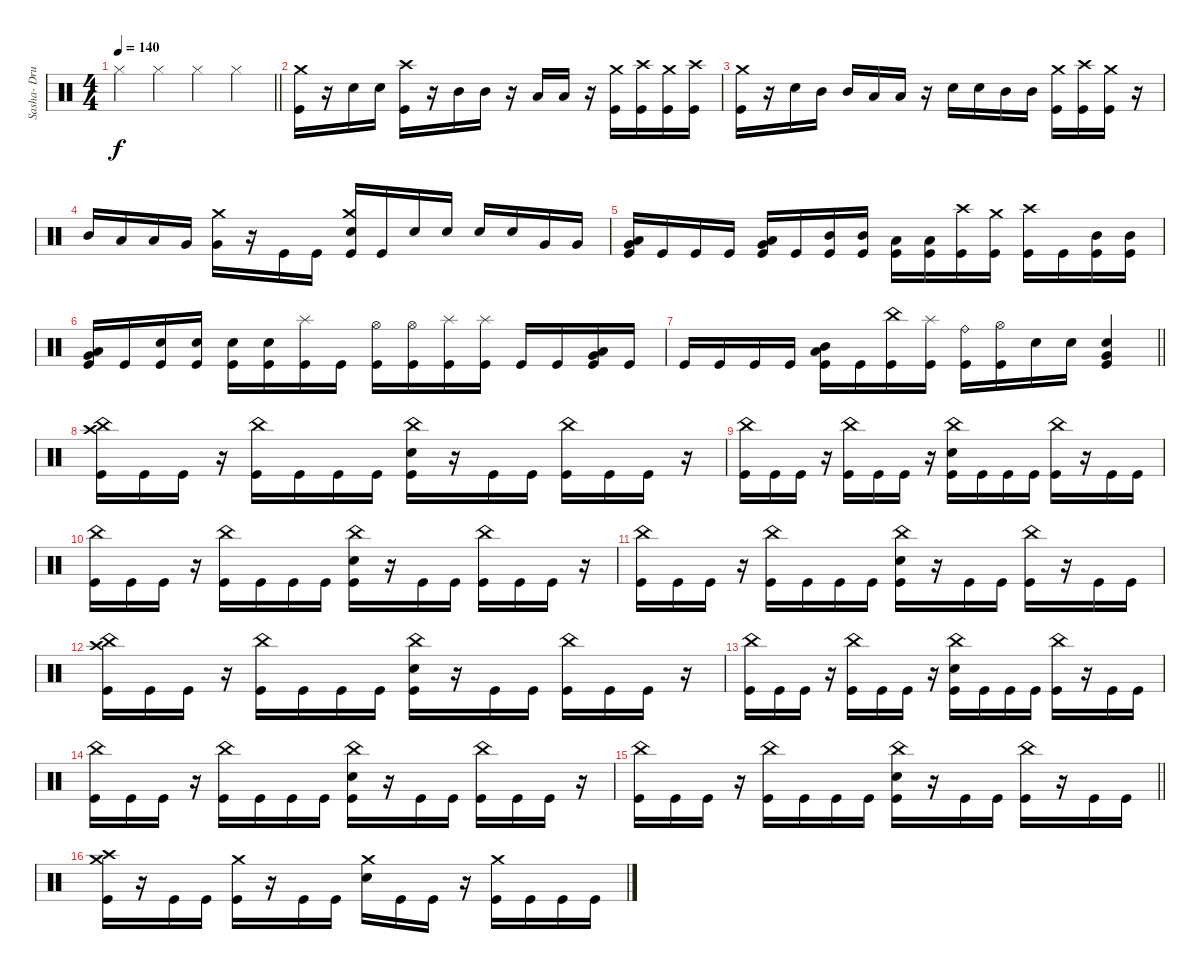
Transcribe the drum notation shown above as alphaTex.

\track ("Sasha- Drums" "Sasha- Dru") {instrument percussion}
\staff {score}
\articulation defaults
\ts (4 4)
\tempo 140
\clef neutral
\barLineRight lightlight
\ks c "Hi-Hat (closed)".4{dy f} "Hi-Hat (closed)".4 "Hi-Hat (closed)".4 "Hi-Hat (closed)".4
|
\section ("" "")
("Kick (hit)" "Crash medium (hit)").16 r.16 "Snare (hit) 2".16 "Snare (hit) 2".16 ("Kick (hit)" "Crash high (hit)").16 r.16 "Mid Tom (hit)".16 "Mid Tom (hit)".16 r.16 "Low Tom (hit)".16 "Low Tom (hit)".16 r.16 ("Crash medium (hit)" "Kick (hit)").16 ("Kick (hit)" "Crash high (hit)").16 ("Kick (hit)" "Crash medium (hit)").16 ("Kick (hit)" "Crash high (hit)").16 |
("Crash medium (hit)" "Kick (hit)").16 r.16 "Snare (hit) 2".16 "Mid Tom (hit)".16 "Mid Tom (hit)".16 "Low Tom (hit)".16 "Low Tom (hit)".16 r.16 "Snare (hit) 2".16 "Snare (hit) 2".16 "Mid Tom (hit)".16 "Mid Tom (hit)".16 ("Kick (hit)" "Crash medium (hit)").16 ("Kick (hit)" "Crash high (hit)").16 ("Kick (hit)" "Crash medium (hit)").16 r.16 |
"Mid Tom (hit)".16 "Low Tom (hit)".16 "Low Tom (hit)".16 "Very Low Tom (hit)".16 ("Crash medium (hit)" "Very Low Tom (hit)").16 r.16 "Kick (hit)".16 "Kick (hit)".16 ("Kick (hit)" "Crash medium (hit)" "Snare (hit) 2").16 "Kick (hit)".16 "Snare (hit) 2".16 "Snare (hit) 2".16 "Snare (hit) 2".16 "Snare (hit) 2".16 "Very Low Tom (hit)".16 "Very Low Tom (hit)".16 |
("Kick (hit)" "Very Low Tom (hit)" "Low Tom (hit)").16 "Kick (hit)".16 "Kick (hit)".16 "Kick (hit)".16 ("Kick (hit)" "Very Low Tom (hit)" "Low Tom (hit)").16 "Kick (hit)".16 ("Kick (hit)" "Mid Tom (hit)").16 ("Kick (hit)" "Mid Tom (hit)").16 ("Kick (hit)" "Low Tom (hit)").16 ("Kick (hit)" "Low Tom (hit)").16 ("Kick (hit)" "Crash high (hit)").16 ("Kick (hit)" "Crash medium (hit)").16 ("Kick (hit)" "Crash high (hit)").16 "Kick (hit)".16 ("Kick (hit)" "Mid Tom (hit)").16 ("Kick (hit)" "Mid Tom (hit)").16 |
("Kick (hit)" "Very Low Tom (hit)" "Low Tom (hit)").16 "Kick (hit)".16 ("Kick (hit)" "Snare (hit) 2").16 ("Kick (hit)" "Snare (hit) 2").16 ("Kick (hit)" "Snare (hit) 2").16 ("Kick (hit)" "Snare (hit) 2").16 ("Kick (hit)" "Splash (hit)").16 "Kick (hit)".16 ("Kick (hit)" "Hi-Hat (open)").16 ("Kick (hit)" "Hi-Hat (open)").16 ("Kick (hit)" "Splash (hit)").16 ("Kick (hit)" "Splash (hit)").16 "Kick (hit)".16 "Kick (hit)".16 ("Low Tom (hit)" "Kick (hit)" "Very Low Tom (hit)").16 "Kick (hit)".16 |
\barLineRight lightlight "Kick (hit)".16 "Kick (hit)".16 "Kick (hit)".16 "Kick (hit)".16
("Kick (hit)" "Low Tom (hit)" "Mid Tom (hit)").16 "Kick (hit)".16 ("Kick (hit)" "China (hit)").16 ("Kick (hit)" "Splash (hit)").16 ("Kick (hit)" "Ride (bell)").16 ("Kick (hit)" "Hi-Hat (open)").16 "Snare (hit) 2".16 "Snare (hit) 2".16 ("Kick (hit)" "Very Low Tom (hit)" "Snare (hit) 2").4 |
\section ("" "")
("Kick (hit)" "Crash high (hit)" "China (hit)").16 "Kick (hit)".16 "Kick (hit)".16 r.16 ("Kick (hit)" "China (hit)").16 "Kick (hit)".16 "Kick (hit)".16 "Kick (hit)".16 ("Kick (hit)" "China (hit)" "Snare (hit) 2").16 r.16 "Kick (hit)".16 "Kick (hit)".16 ("Kick (hit)" "China (hit)").16 "Kick (hit)".16 "Kick (hit)".16 r.16 |
("Kick (hit)" "China (hit)").16 "Kick (hit)".16 "Kick (hit)".16 r.16 ("Kick (hit)" "China (hit)").16 "Kick (hit)".16 "Kick (hit)".16 r.16 ("Kick (hit)" "China (hit)" "Snare (hit) 2").16 "Kick (hit)".16 "Kick (hit)".16 "Kick (hit)".16 ("Kick (hit)" "China (hit)").16 r.16 "Kick (hit)".16 "Kick (hit)".16 |
("Kick (hit)" "China (hit)").16 "Kick (hit)".16 "Kick (hit)".16 r.16 ("Kick (hit)" "China (hit)").16 "Kick (hit)".16 "Kick (hit)".16 "Kick (hit)".16 ("Kick (hit)" "China (hit)" "Snare (hit) 2").16 r.16 "Kick (hit)".16 "Kick (hit)".16 ("Kick (hit)" "China (hit)").16 "Kick (hit)".16 "Kick (hit)".16 r.16 |
("Kick (hit)" "China (hit)").16 "Kick (hit)".16 "Kick (hit)".16 r.16 ("Kick (hit)" "China (hit)").16 "Kick (hit)".16 "Kick (hit)".16 "Kick (hit)".16 ("Kick (hit)" "China (hit)" "Snare (hit) 2").16 r.16 "Kick (hit)".16 "Kick (hit)".16 ("Kick (hit)" "China (hit)").16 r.16 "Kick (hit)".16 "Kick (hit)".16 |
("Kick (hit)" "Crash high (hit)" "China (hit)").16 "Kick (hit)".16 "Kick (hit)".16 r.16 ("Kick (hit)" "China (hit)").16 "Kick (hit)".16 "Kick (hit)".16 "Kick (hit)".16 ("Kick (hit)" "China (hit)" "Snare (hit) 2").16 r.16 "Kick (hit)".16 "Kick (hit)".16 ("Kick (hit)" "China (hit)").16 "Kick (hit)".16 "Kick (hit)".16 r.16 |
("Kick (hit)" "China (hit)").16 "Kick (hit)".16 "Kick (hit)".16 r.16 ("Kick (hit)" "China (hit)").16 "Kick (hit)".16 "Kick (hit)".16 r.16 ("Kick (hit)" "China (hit)" "Snare (hit) 2").16 "Kick (hit)".16 "Kick (hit)".16 "Kick (hit)".16 ("Kick (hit)" "China (hit)").16 r.16 "Kick (hit)".16 "Kick (hit)".16 |
("Kick (hit)" "China (hit)").16 "Kick (hit)".16 "Kick (hit)".16 r.16 ("Kick (hit)" "China (hit)").16 "Kick (hit)".16 "Kick (hit)".16 "Kick (hit)".16 ("Kick (hit)" "China (hit)" "Snare (hit) 2").16 r.16 "Kick (hit)".16 "Kick (hit)".16 ("Kick (hit)" "China (hit)").16 "Kick (hit)".16 "Kick (hit)".16 r.16 |
\barLineRight lightlight
("Kick (hit)" "China (hit)").16 "Kick (hit)".16 "Kick (hit)".16 r.16 ("Kick (hit)" "China (hit)").16 "Kick (hit)".16 "Kick (hit)".16 "Kick (hit)".16 ("Kick (hit)" "China (hit)" "Snare (hit) 2").16 r.16 "Kick (hit)".16 "Kick (hit)".16 ("Kick (hit)" "China (hit)").16 r.16 "Kick (hit)".16 "Kick (hit)".16 |
\section ("" "")
("Kick (hit)" "Crash high (hit)" "Crash medium (hit)").16 r.16 "Kick (hit)".16 "Kick (hit)".16 ("Kick (hit)" "Crash medium (hit)").16 r.16 "Kick (hit)".16 "Kick (hit)".16 ("Crash medium (hit)" "Snare (hit) 2").16 "Kick (hit)".16 "Kick (hit)".16 r.16 ("Crash medium (hit)" "Kick (hit)").16 "Kick (hit)".16 "Kick (hit)".16 "Kick (hit)".16
